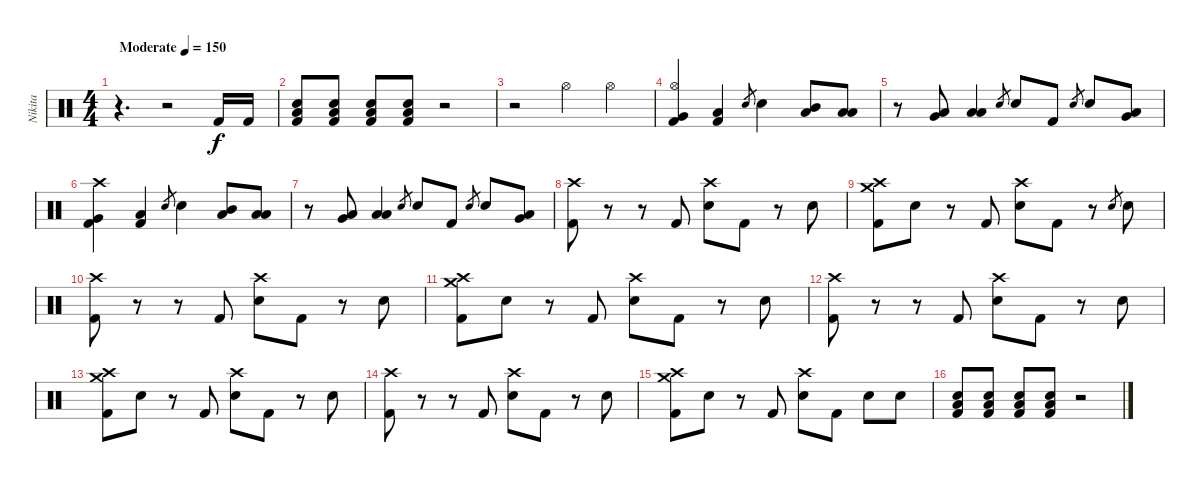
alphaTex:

\track ("Nikita" "Nikita") {instrument percussion}
\staff {score}
\articulation defaults
\ts (4 4)
\tempo (150 "Moderate")
\clef neutral
\ks c
r.4{d dy f} r.2 "Kick (hit) 2".16 "Kick (hit) 2".16 |
("Electric Snare (hit)" "Low Floor Tom (hit)" "Kick (hit) 2").8 ("Electric Snare (hit)" "Low Floor Tom (hit)" "Kick (hit) 2").8 ("Electric Snare (hit)" "Low Floor Tom (hit)" "Kick (hit) 2").8 ("Electric Snare (hit)" "Low Floor Tom (hit)" "Kick (hit) 2").8 r.2 |
r.2 "Hi-Hat (open)".4 "Hi-Hat (open)".4 |
("Hi-Hat (open)" "Very Low Tom (hit)" "Kick (hit) 2").4 ("Low Floor Tom (hit)" "Kick (hit) 2").4 "Electric Snare (hit)".8{gr} "Electric Snare (hit)".4 ("Low Tom (hit)" "Mid Tom (hit)").8 ("Low Tom (hit)" "Low Floor Tom (hit)").8 |
r.8 ("Low Tom (hit)" "Very Low Tom (hit)").8 ("Low Tom (hit)" "Low Floor Tom (hit)").4 "Electric Snare (hit)".8{gr} "Electric Snare (hit)".8 "Kick (hit) 2".8 "Electric Snare (hit)".8{gr} "Electric Snare (hit)".8 ("Very Low Tom (hit)" "Low Floor Tom (hit)").8 |
("Crash high (hit)" "Very Low Tom (hit)" "Kick (hit) 2").4 ("Low Floor Tom (hit)" "Kick (hit) 2").4 "Electric Snare (hit)".8{gr} "Electric Snare (hit)".4 ("Low Tom (hit)" "Mid Tom (hit)").8 ("Low Tom (hit)" "Low Floor Tom (hit)").8 |
r.8 ("Low Tom (hit)" "Very Low Tom (hit)").8 ("Low Tom (hit)" "Low Floor Tom (hit)").4 "Electric Snare (hit)".8{gr} "Electric Snare (hit)".8 "Kick (hit) 2".8 "Electric Snare (hit)".8{gr} "Electric Snare (hit)".8 ("Very Low Tom (hit)" "Low Floor Tom (hit)").8 |
("Crash high (hit)" "Kick (hit) 2").8 r.8 r.8 "Kick (hit) 2".8 ("Crash high (hit)" "Electric Snare (hit)").8 "Kick (hit) 2".8 r.8 "Electric Snare (hit)".8 |
("Crash high (hit)" "Crash medium (hit)" "Kick (hit) 2").8 "Electric Snare (hit)".8 r.8 "Kick (hit) 2".8 ("Crash high (hit)" "Electric Snare (hit)").8 "Kick (hit) 2".8 r.8 "Electric Snare (hit)".8{gr} "Electric Snare (hit)".8 |
("Crash high (hit)" "Kick (hit) 2").8 r.8 r.8 "Kick (hit) 2".8 ("Crash high (hit)" "Electric Snare (hit)").8 "Kick (hit) 2".8 r.8 "Electric Snare (hit)".8 |
("Crash high (hit)" "Crash medium (hit)" "Kick (hit) 2").8 "Electric Snare (hit)".8 r.8 "Kick (hit) 2".8 ("Crash high (hit)" "Electric Snare (hit)").8 "Kick (hit) 2".8 r.8 "Electric Snare (hit)".8 |
("Crash high (hit)" "Kick (hit) 2").8 r.8 r.8 "Kick (hit) 2".8 ("Crash high (hit)" "Electric Snare (hit)").8 "Kick (hit) 2".8 r.8 "Electric Snare (hit)".8 |
("Crash high (hit)" "Crash medium (hit)" "Kick (hit) 2").8 "Electric Snare (hit)".8 r.8 "Kick (hit) 2".8 ("Crash high (hit)" "Electric Snare (hit)").8 "Kick (hit) 2".8 r.8 "Electric Snare (hit)".8 |
("Crash high (hit)" "Kick (hit) 2").8 r.8 r.8 "Kick (hit) 2".8 ("Crash high (hit)" "Electric Snare (hit)").8 "Kick (hit) 2".8 r.8 "Electric Snare (hit)".8 |
("Crash high (hit)" "Crash medium (hit)" "Kick (hit) 2").8 "Electric Snare (hit)".8 r.8 "Kick (hit) 2".8 ("Crash high (hit)" "Electric Snare (hit)").8 "Kick (hit) 2".8 "Electric Snare (hit)".8 "Electric Snare (hit)".8 |
("Electric Snare (hit)" "Low Floor Tom (hit)" "Kick (hit) 2").8 ("Electric Snare (hit)" "Low Floor Tom (hit)" "Kick (hit) 2").8 ("Electric Snare (hit)" "Low Floor Tom (hit)" "Kick (hit) 2").8 ("Electric Snare (hit)" "Low Floor Tom (hit)" "Kick (hit) 2").8 r.2
